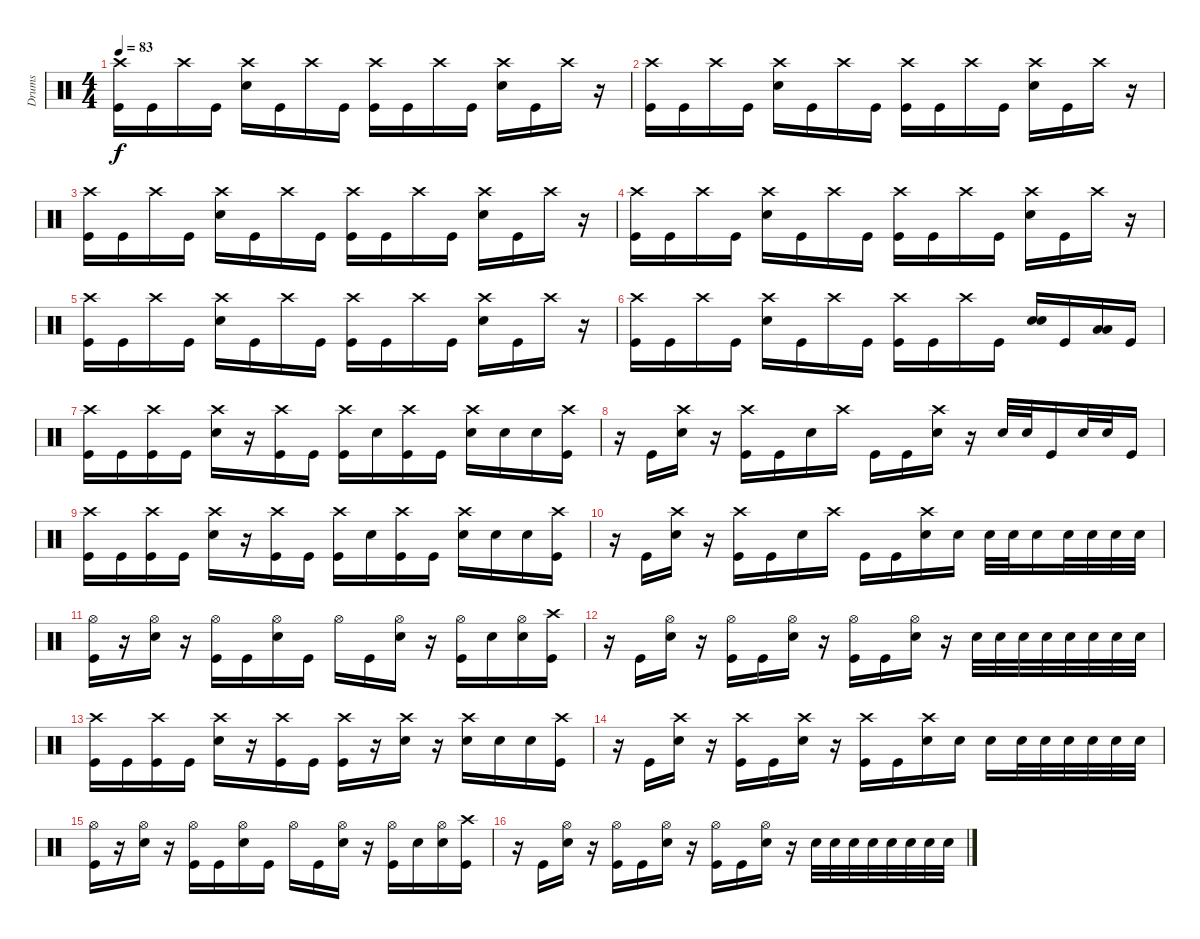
\track ("Drums" "Drums") {instrument percussion}
\staff {score}
\articulation defaults
\ts (4 4)
\tempo 83
\clef neutral
\ks c
("Crash high (hit)" "Kick (hit)").16{dy f} "Kick (hit)".16 "Crash high (hit)".16 "Kick (hit)".16 ("Crash high (hit)" "Snare (hit) 2").16 "Kick (hit)".16 "Crash high (hit)".16 "Kick (hit)".16 ("Crash high (hit)" "Kick (hit)").16 "Kick (hit)".16 "Crash high (hit)".16 "Kick (hit)".16 ("Crash high (hit)" "Snare (hit) 2").16 "Kick (hit)".16 "Crash high (hit)".16 r.16 |
("Crash high (hit)" "Kick (hit)").16 "Kick (hit)".16 "Crash high (hit)".16 "Kick (hit)".16 ("Crash high (hit)" "Snare (hit) 2").16 "Kick (hit)".16 "Crash high (hit)".16 "Kick (hit)".16 ("Crash high (hit)" "Kick (hit)").16 "Kick (hit)".16 "Crash high (hit)".16 "Kick (hit)".16 ("Crash high (hit)" "Snare (hit) 2").16 "Kick (hit)".16 "Crash high (hit)".16 r.16 |
("Crash high (hit)" "Kick (hit)").16 "Kick (hit)".16 "Crash high (hit)".16 "Kick (hit)".16 ("Crash high (hit)" "Snare (hit) 2").16 "Kick (hit)".16 "Crash high (hit)".16 "Kick (hit)".16 ("Crash high (hit)" "Kick (hit)").16 "Kick (hit)".16 "Crash high (hit)".16 "Kick (hit)".16 ("Crash high (hit)" "Snare (hit) 2").16 "Kick (hit)".16 "Crash high (hit)".16 r.16 |
("Crash high (hit)" "Kick (hit)").16 "Kick (hit)".16 "Crash high (hit)".16 "Kick (hit)".16 ("Crash high (hit)" "Snare (hit) 2").16 "Kick (hit)".16 "Crash high (hit)".16 "Kick (hit)".16 ("Crash high (hit)" "Kick (hit)").16 "Kick (hit)".16 "Crash high (hit)".16 "Kick (hit)".16 ("Crash high (hit)" "Snare (hit) 2").16 "Kick (hit)".16 "Crash high (hit)".16 r.16 |
("Crash high (hit)" "Kick (hit)").16 "Kick (hit)".16 "Crash high (hit)".16 "Kick (hit)".16 ("Crash high (hit)" "Snare (hit) 2").16 "Kick (hit)".16 "Crash high (hit)".16 "Kick (hit)".16 ("Crash high (hit)" "Kick (hit)").16 "Kick (hit)".16 "Crash high (hit)".16 "Kick (hit)".16 ("Crash high (hit)" "Snare (hit) 2").16 "Kick (hit)".16 "Crash high (hit)".16 r.16 |
("Crash high (hit)" "Kick (hit)").16 "Kick (hit)".16 "Crash high (hit)".16 "Kick (hit)".16 ("Crash high (hit)" "Snare (hit) 2").16 "Kick (hit)".16 "Crash high (hit)".16 "Kick (hit)".16 ("Crash high (hit)" "Kick (hit)").16 "Kick (hit)".16 "Crash high (hit)".16 "Kick (hit)".16 ("Snare (hit) 2" "Snare (hit) 2").16 "Kick (hit)".16 ("Low Floor Tom (hit)" "Low Floor Tom (hit)").16 "Kick (hit)".16 |
("Crash high (hit)" "Kick (hit)").16 "Kick (hit)".16 ("Crash high (hit)" "Kick (hit)").16 "Kick (hit)".16 ("Crash high (hit)" "Snare (hit) 2").16 r.16 ("Crash high (hit)" "Kick (hit)").16 "Kick (hit)".16 ("Crash high (hit)" "Kick (hit)").16 "Snare (hit) 2".16 ("Crash high (hit)" "Kick (hit)").16 "Kick (hit)".16 ("Crash high (hit)" "Snare (hit) 2").16 "Snare (hit) 2".16 "Snare (hit) 2".16 ("Crash high (hit)" "Kick (hit)").16 |
r.16 "Kick (hit)".16 ("Crash high (hit)" "Snare (hit) 2").16 r.16 ("Crash high (hit)" "Kick (hit)").16 "Kick (hit)".16 "Snare (hit) 2".16 "Crash high (hit)".16 "Kick (hit)".16 "Kick (hit)".16 ("Crash high (hit)" "Snare (hit) 2").16 r.16 "Snare (hit) 2".32 "Snare (hit) 2".32 "Kick (hit)".16 "Snare (hit) 2".32 "Snare (hit) 2".32 "Kick (hit)".16 |
("Crash high (hit)" "Kick (hit)").16 "Kick (hit)".16 ("Crash high (hit)" "Kick (hit)").16 "Kick (hit)".16 ("Crash high (hit)" "Snare (hit) 2").16 r.16 ("Crash high (hit)" "Kick (hit)").16 "Kick (hit)".16 ("Crash high (hit)" "Kick (hit)").16 "Snare (hit) 2".16 ("Crash high (hit)" "Kick (hit)").16 "Kick (hit)".16 ("Crash high (hit)" "Snare (hit) 2").16 "Snare (hit) 2".16 "Snare (hit) 2".16 ("Crash high (hit)" "Kick (hit)").16 |
r.16 "Kick (hit)".16 ("Crash high (hit)" "Snare (hit) 2").16 r.16 ("Crash high (hit)" "Kick (hit)").16 "Kick (hit)".16 "Snare (hit) 2".16 "Crash high (hit)".16 "Kick (hit)".16 "Kick (hit)".16 ("Crash high (hit)" "Snare (hit) 2").16 "Snare (hit) 2".16 "Snare (hit) 2".32 "Snare (hit) 2".32 "Snare (hit) 2".16 "Snare (hit) 2".32 "Snare (hit) 2".32 "Snare (hit) 2".32 "Snare (hit) 2".32 |
("Hi-Hat (open)" "Kick (hit)").16 r.16 ("Hi-Hat (open)" "Snare (hit) 2").16 r.16 ("Hi-Hat (open)" "Kick (hit)").16 "Kick (hit)".16 ("Hi-Hat (open)" "Snare (hit) 2").16 "Kick (hit)".16 "Hi-Hat (open)".16 "Kick (hit)".16 ("Hi-Hat (open)" "Snare (hit) 2").16 r.16 ("Hi-Hat (open)" "Kick (hit)").16 "Snare (hit) 2".16 ("Hi-Hat (open)" "Snare (hit) 2").16 ("Crash high (hit)" "Kick (hit)").16 |
r.16 "Kick (hit)".16 ("Hi-Hat (open)" "Snare (hit) 2").16 r.16 ("Hi-Hat (open)" "Kick (hit)").16 "Kick (hit)".16 ("Hi-Hat (open)" "Snare (hit) 2").16 r.16 ("Hi-Hat (open)" "Kick (hit)").16 "Kick (hit)".16 ("Hi-Hat (open)" "Snare (hit) 2").16 r.16 "Snare (hit) 2".32 "Snare (hit) 2".32 "Snare (hit) 2".32 "Snare (hit) 2".32 "Snare (hit) 2".32 "Snare (hit) 2".32 "Snare (hit) 2".32 "Snare (hit) 2".32 |
("Crash high (hit)" "Kick (hit)").16 "Kick (hit)".16 ("Crash high (hit)" "Kick (hit)").16 "Kick (hit)".16 ("Crash high (hit)" "Snare (hit) 2").16 r.16 ("Crash high (hit)" "Kick (hit)").16 "Kick (hit)".16 ("Crash high (hit)" "Kick (hit)").16 r.16 ("Crash high (hit)" "Snare (hit) 2").16 r.16 ("Crash high (hit)" "Snare (hit) 2").16 "Snare (hit) 2".16 "Snare (hit) 2".16 ("Crash high (hit)" "Kick (hit)").16 |
r.16 "Kick (hit)".16 ("Crash high (hit)" "Snare (hit) 2").16 r.16 ("Crash high (hit)" "Kick (hit)").16 "Kick (hit)".16 ("Crash high (hit)" "Snare (hit) 2").16 r.16 ("Crash high (hit)" "Kick (hit)").16 "Kick (hit)".16 ("Crash high (hit)" "Snare (hit) 2").16 "Snare (hit) 2".16 "Snare (hit) 2".16 "Snare (hit) 2".32 "Snare (hit) 2".32 "Snare (hit) 2".32 "Snare (hit) 2".32 "Snare (hit) 2".32 "Snare (hit) 2".32 |
("Hi-Hat (open)" "Kick (hit)").16 r.16 ("Hi-Hat (open)" "Snare (hit) 2").16 r.16 ("Hi-Hat (open)" "Kick (hit)").16 "Kick (hit)".16 ("Hi-Hat (open)" "Snare (hit) 2").16 "Kick (hit)".16 "Hi-Hat (open)".16 "Kick (hit)".16 ("Hi-Hat (open)" "Snare (hit) 2").16 r.16 ("Hi-Hat (open)" "Kick (hit)").16 "Snare (hit) 2".16 ("Hi-Hat (open)" "Snare (hit) 2").16 ("Crash high (hit)" "Kick (hit)").16 |
r.16 "Kick (hit)".16 ("Hi-Hat (open)" "Snare (hit) 2").16 r.16 ("Hi-Hat (open)" "Kick (hit)").16 "Kick (hit)".16 ("Hi-Hat (open)" "Snare (hit) 2").16 r.16 ("Hi-Hat (open)" "Kick (hit)").16 "Kick (hit)".16 ("Hi-Hat (open)" "Snare (hit) 2").16 r.16 "Snare (hit) 2".32 "Snare (hit) 2".32 "Snare (hit) 2".32 "Snare (hit) 2".32 "Snare (hit) 2".32 "Snare (hit) 2".32 "Snare (hit) 2".32 "Snare (hit) 2".32
